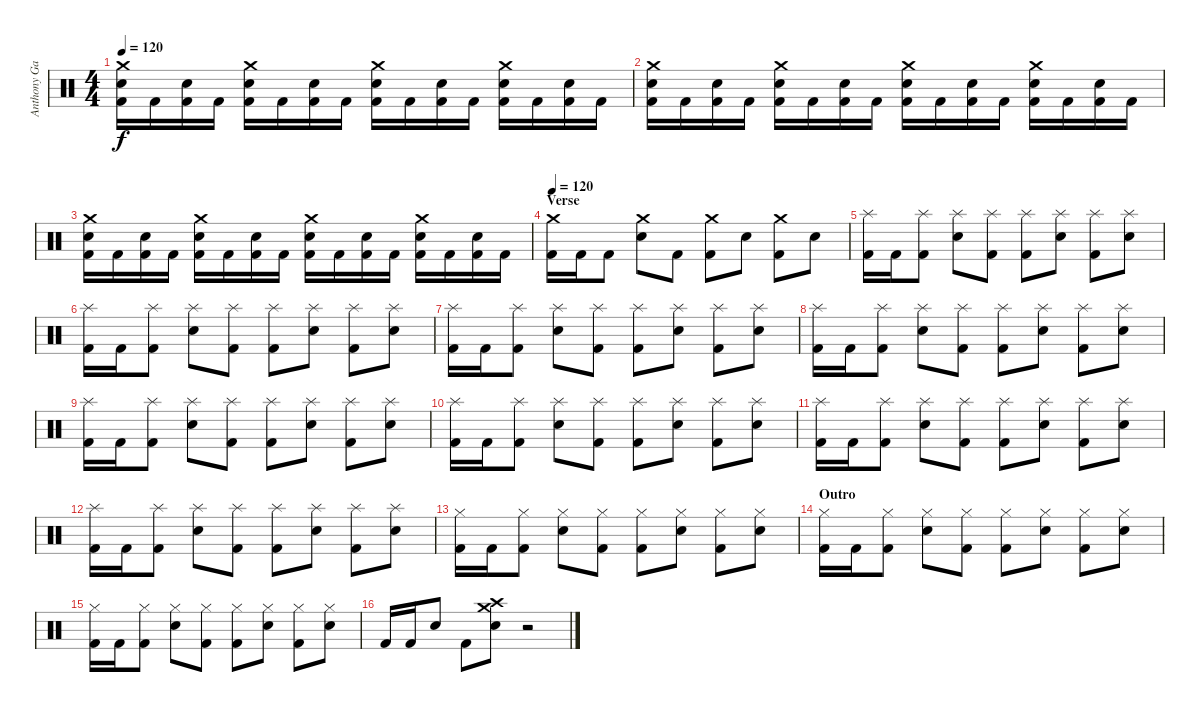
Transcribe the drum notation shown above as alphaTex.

\track ("Anthony Garbarino" "Anthony Ga") {instrument percussion}
\staff {score}
\articulation defaults
\ts (4 4)
\tempo 120
\clef neutral
\ks c
("Crash medium (hit)" "Snare (hit) 2" "Kick (hit) 2").16{dy f} "Kick (hit) 2".16 ("Snare (hit) 2" "Kick (hit) 2").16 "Kick (hit) 2".16 ("Crash medium (hit)" "Snare (hit) 2" "Kick (hit) 2").16 "Kick (hit) 2".16 ("Snare (hit) 2" "Kick (hit) 2").16 "Kick (hit) 2".16 ("Crash medium (hit)" "Snare (hit) 2" "Kick (hit) 2").16 "Kick (hit) 2".16 ("Snare (hit) 2" "Kick (hit) 2").16 "Kick (hit) 2".16 ("Crash medium (hit)" "Snare (hit) 2" "Kick (hit) 2").16 "Kick (hit) 2".16 ("Snare (hit) 2" "Kick (hit) 2").16 "Kick (hit) 2".16 |
("Crash medium (hit)" "Snare (hit) 2" "Kick (hit) 2").16 "Kick (hit) 2".16 ("Snare (hit) 2" "Kick (hit) 2").16 "Kick (hit) 2".16 ("Crash medium (hit)" "Snare (hit) 2" "Kick (hit) 2").16 "Kick (hit) 2".16 ("Snare (hit) 2" "Kick (hit) 2").16 "Kick (hit) 2".16 ("Crash medium (hit)" "Snare (hit) 2" "Kick (hit) 2").16 "Kick (hit) 2".16 ("Snare (hit) 2" "Kick (hit) 2").16 "Kick (hit) 2".16 ("Crash medium (hit)" "Snare (hit) 2" "Kick (hit) 2").16 "Kick (hit) 2".16 ("Snare (hit) 2" "Kick (hit) 2").16 "Kick (hit) 2".16 |
("Crash medium (hit)" "Snare (hit) 2" "Kick (hit) 2").16 "Kick (hit) 2".16 ("Snare (hit) 2" "Kick (hit) 2").16 "Kick (hit) 2".16 ("Crash medium (hit)" "Snare (hit) 2" "Kick (hit) 2").16 "Kick (hit) 2".16 ("Snare (hit) 2" "Kick (hit) 2").16 "Kick (hit) 2".16 ("Crash medium (hit)" "Snare (hit) 2" "Kick (hit) 2").16 "Kick (hit) 2".16 ("Snare (hit) 2" "Kick (hit) 2").16 "Kick (hit) 2".16 ("Crash medium (hit)" "Snare (hit) 2" "Kick (hit) 2").16 "Kick (hit) 2".16 ("Snare (hit) 2" "Kick (hit) 2").16 "Kick (hit) 2".16 |
\section ("" "Verse")
\tempo 120
("Crash medium (hit)" "Kick (hit) 2").16 "Kick (hit) 2".16 "Kick (hit) 2".8 ("Crash medium (hit)" "Snare (hit) 2").8 "Kick (hit) 2".8 ("Crash medium (hit)" "Kick (hit) 2").8 "Snare (hit) 2".8 ("Crash medium (hit)" "Kick (hit) 2").8 "Snare (hit) 2".8 |
("Splash (hit)" "Kick (hit) 2").16 "Kick (hit) 2".16 ("Splash (hit)" "Kick (hit) 2").8 ("Splash (hit)" "Snare (hit) 2").8 ("Splash (hit)" "Kick (hit) 2").8 ("Splash (hit)" "Kick (hit) 2").8 ("Splash (hit)" "Snare (hit) 2").8 ("Splash (hit)" "Kick (hit) 2").8 ("Splash (hit)" "Snare (hit) 2").8 |
("Splash (hit)" "Kick (hit) 2").16 "Kick (hit) 2".16 ("Splash (hit)" "Kick (hit) 2").8 ("Splash (hit)" "Snare (hit) 2").8 ("Splash (hit)" "Kick (hit) 2").8 ("Splash (hit)" "Kick (hit) 2").8 ("Splash (hit)" "Snare (hit) 2").8 ("Splash (hit)" "Kick (hit) 2").8 ("Splash (hit)" "Snare (hit) 2").8 |
("Splash (hit)" "Kick (hit) 2").16 "Kick (hit) 2".16 ("Splash (hit)" "Kick (hit) 2").8 ("Splash (hit)" "Snare (hit) 2").8 ("Splash (hit)" "Kick (hit) 2").8 ("Splash (hit)" "Kick (hit) 2").8 ("Splash (hit)" "Snare (hit) 2").8 ("Splash (hit)" "Kick (hit) 2").8 ("Splash (hit)" "Snare (hit) 2").8 |
("Splash (hit)" "Kick (hit) 2").16 "Kick (hit) 2".16 ("Splash (hit)" "Kick (hit) 2").8 ("Splash (hit)" "Snare (hit) 2").8 ("Splash (hit)" "Kick (hit) 2").8 ("Splash (hit)" "Kick (hit) 2").8 ("Splash (hit)" "Snare (hit) 2").8 ("Splash (hit)" "Kick (hit) 2").8 ("Splash (hit)" "Snare (hit) 2").8 |
("Splash (hit)" "Kick (hit) 2").16 "Kick (hit) 2".16 ("Splash (hit)" "Kick (hit) 2").8 ("Splash (hit)" "Snare (hit) 2").8 ("Splash (hit)" "Kick (hit) 2").8 ("Splash (hit)" "Kick (hit) 2").8 ("Splash (hit)" "Snare (hit) 2").8 ("Splash (hit)" "Kick (hit) 2").8 ("Splash (hit)" "Snare (hit) 2").8 |
("Splash (hit)" "Kick (hit) 2").16 "Kick (hit) 2".16 ("Splash (hit)" "Kick (hit) 2").8 ("Splash (hit)" "Snare (hit) 2").8 ("Splash (hit)" "Kick (hit) 2").8 ("Splash (hit)" "Kick (hit) 2").8 ("Splash (hit)" "Snare (hit) 2").8 ("Splash (hit)" "Kick (hit) 2").8 ("Splash (hit)" "Snare (hit) 2").8 |
("Splash (hit)" "Kick (hit) 2").16 "Kick (hit) 2".16 ("Splash (hit)" "Kick (hit) 2").8 ("Splash (hit)" "Snare (hit) 2").8 ("Splash (hit)" "Kick (hit) 2").8 ("Splash (hit)" "Kick (hit) 2").8 ("Splash (hit)" "Snare (hit) 2").8 ("Splash (hit)" "Kick (hit) 2").8 ("Splash (hit)" "Snare (hit) 2").8 |
("Splash (hit)" "Kick (hit) 2").16 "Kick (hit) 2".16 ("Splash (hit)" "Kick (hit) 2").8 ("Splash (hit)" "Snare (hit) 2").8 ("Splash (hit)" "Kick (hit) 2").8 ("Splash (hit)" "Kick (hit) 2").8 ("Splash (hit)" "Snare (hit) 2").8 ("Splash (hit)" "Kick (hit) 2").8 ("Splash (hit)" "Snare (hit) 2").8 |
("Hi-Hat (closed)" "Kick (hit) 2").16 "Kick (hit) 2".16 ("Hi-Hat (closed)" "Kick (hit) 2").8 ("Hi-Hat (closed)" "Snare (hit) 2").8 ("Hi-Hat (closed)" "Kick (hit) 2").8 ("Hi-Hat (closed)" "Kick (hit) 2").8 ("Hi-Hat (closed)" "Snare (hit) 2").8 ("Hi-Hat (closed)" "Kick (hit) 2").8 ("Hi-Hat (closed)" "Snare (hit) 2").8 |
\section ("" "Outro")
("Hi-Hat (closed)" "Kick (hit) 2").16 "Kick (hit) 2".16 ("Hi-Hat (closed)" "Kick (hit) 2").8 ("Hi-Hat (closed)" "Snare (hit) 2").8 ("Hi-Hat (closed)" "Kick (hit) 2").8 ("Hi-Hat (closed)" "Kick (hit) 2").8 ("Hi-Hat (closed)" "Snare (hit) 2").8 ("Hi-Hat (closed)" "Kick (hit) 2").8 ("Hi-Hat (closed)" "Snare (hit) 2").8 |
("Hi-Hat (closed)" "Kick (hit) 2").16 "Kick (hit) 2".16 ("Hi-Hat (closed)" "Kick (hit) 2").8 ("Hi-Hat (closed)" "Snare (hit) 2").8 ("Hi-Hat (closed)" "Kick (hit) 2").8 ("Hi-Hat (closed)" "Kick (hit) 2").8 ("Hi-Hat (closed)" "Snare (hit) 2").8 ("Hi-Hat (closed)" "Kick (hit) 2").8 ("Hi-Hat (closed)" "Snare (hit) 2").8 |
"Kick (hit) 2".16 "Kick (hit) 2".16 "Snare (hit) 2".8 "Kick (hit) 2".8 ("Crash medium (hit)" "Crash high (hit)" "Snare (hit) 2").8 r.2
